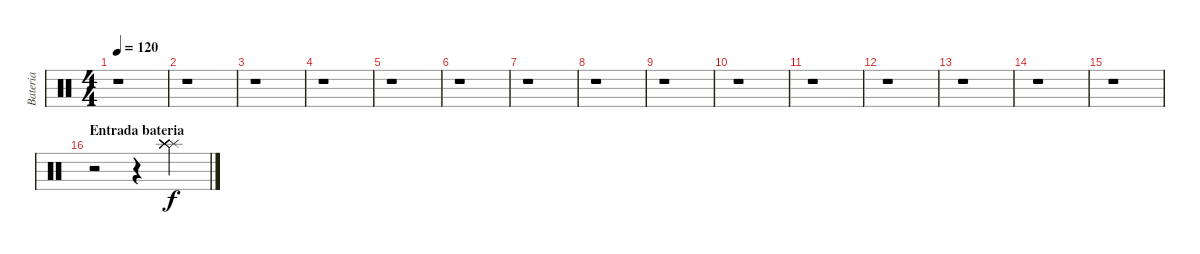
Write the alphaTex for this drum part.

\track ("Bateria" "Bateria") {instrument percussion}
\staff {score}
\articulation defaults
\ts (4 4)
\tempo 120
\clef neutral
\ks c
r.1{dy f} |
r.1 |
r.1 |
r.1 |
r.1 |
r.1 |
r.1 |
r.1 |
r.1 |
r.1 |
r.1 |
r.1 |
r.1 |
r.1 |
r.1 |
\section ("" "Entrada bateria")
r.2 r.4 ("Splash (hit)" "Splash (hit)" "Splash (hit)" "Splash (hit)" "Splash (hit)" "Splash (hit)").4
